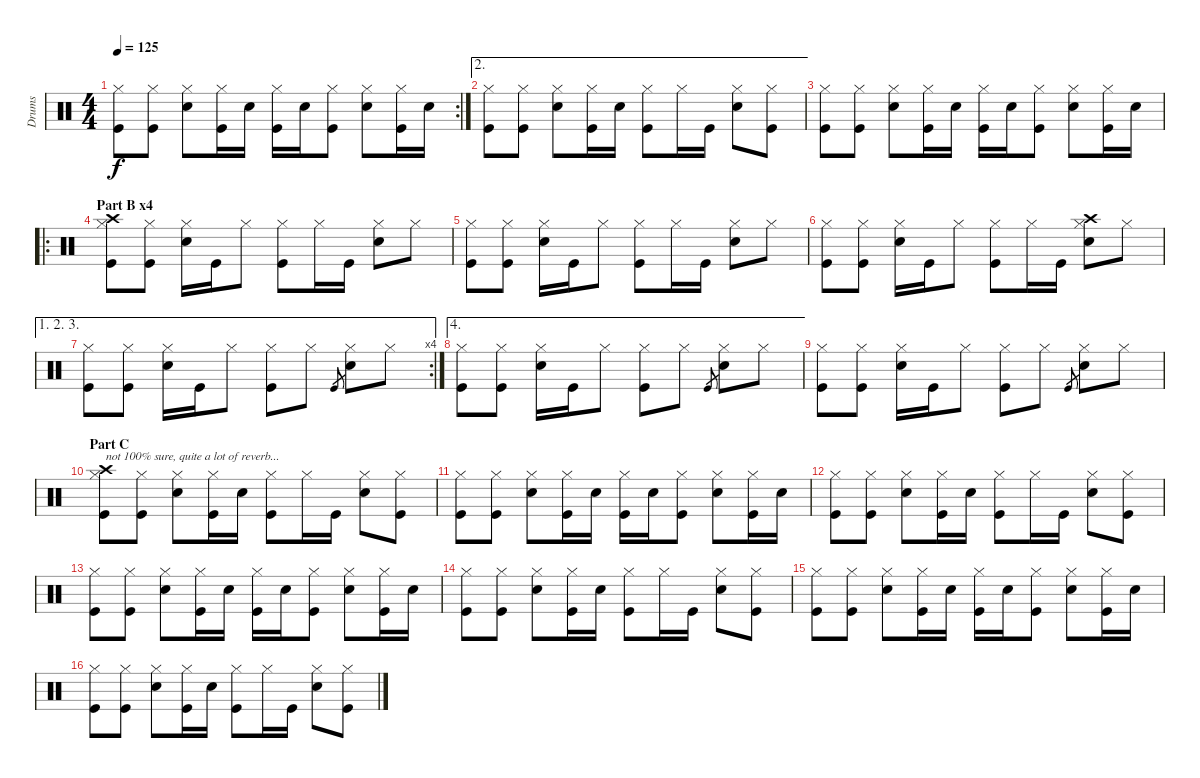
\track ("Drums" "Drums") {instrument percussion}
\staff {score}
\articulation defaults
\rc 2
\ts (4 4)
\tempo 125
\clef neutral
\ks c
("Hi-Hat (closed)" "Kick (hit)").8{dy f} ("Hi-Hat (closed)" "Kick (hit)").8 ("Hi-Hat (closed)" "Electric Snare (hit)").8 ("Hi-Hat (closed)" "Kick (hit)").16 "Electric Snare (hit)".16 ("Hi-Hat (closed)" "Kick (hit)").16 "Electric Snare (hit)".16 ("Hi-Hat (closed)" "Kick (hit)").8 ("Hi-Hat (closed)" "Electric Snare (hit)").8 ("Hi-Hat (closed)" "Kick (hit)").16 "Electric Snare (hit)".16 |
\ae 2
("Hi-Hat (closed)" "Kick (hit)").8 ("Hi-Hat (closed)" "Kick (hit)").8 ("Hi-Hat (closed)" "Electric Snare (hit)").8 ("Hi-Hat (closed)" "Kick (hit)").16 "Electric Snare (hit)".16 ("Hi-Hat (closed)" "Kick (hit)").8 "Hi-Hat (closed)".16 "Kick (hit)".16 ("Hi-Hat (closed)" "Electric Snare (hit)").8 ("Hi-Hat (closed)" "Kick (hit)").8 |
("Hi-Hat (closed)" "Kick (hit)").8 ("Hi-Hat (closed)" "Kick (hit)").8 ("Hi-Hat (closed)" "Electric Snare (hit)").8 ("Hi-Hat (closed)" "Kick (hit)").16 "Electric Snare (hit)".16 ("Hi-Hat (closed)" "Kick (hit)").16 "Electric Snare (hit)".16 ("Hi-Hat (closed)" "Kick (hit)").8 ("Hi-Hat (closed)" "Electric Snare (hit)").8 ("Hi-Hat (closed)" "Kick (hit)").16 "Electric Snare (hit)".16 |
\ro
\section ("" "Part B x4")
("Hi-Hat (closed)" "Crash high (hit)" "Kick (hit)").8 ("Hi-Hat (closed)" "Kick (hit)").8 ("Hi-Hat (closed)" "Electric Snare (hit)").16 "Kick (hit)".16 "Hi-Hat (closed)".8 ("Hi-Hat (closed)" "Kick (hit)").8 "Hi-Hat (closed)".16 "Kick (hit)".16 ("Hi-Hat (closed)" "Electric Snare (hit)").8 "Hi-Hat (closed)".8 |
("Hi-Hat (closed)" "Kick (hit)").8 ("Hi-Hat (closed)" "Kick (hit)").8 ("Hi-Hat (closed)" "Electric Snare (hit)").16 "Kick (hit)".16 "Hi-Hat (closed)".8 ("Hi-Hat (closed)" "Kick (hit)").8 "Hi-Hat (closed)".16 "Kick (hit)".16 ("Hi-Hat (closed)" "Electric Snare (hit)").8 "Hi-Hat (closed)".8 |
("Hi-Hat (closed)" "Kick (hit)").8 ("Hi-Hat (closed)" "Kick (hit)").8 ("Hi-Hat (closed)" "Electric Snare (hit)").16 "Kick (hit)".16 "Hi-Hat (closed)".8 ("Hi-Hat (closed)" "Kick (hit)").8 "Hi-Hat (closed)".16 "Kick (hit)".16 ("Hi-Hat (closed)" "Crash high (hit)" "Electric Snare (hit)").8 "Hi-Hat (closed)".8 |
\ae (1 2 3)
\rc 4
("Hi-Hat (closed)" "Kick (hit)").8 ("Hi-Hat (closed)" "Kick (hit)").8 ("Hi-Hat (closed)" "Electric Snare (hit)").16 "Kick (hit)".16 "Hi-Hat (closed)".8 ("Hi-Hat (closed)" "Kick (hit)").8 "Hi-Hat (closed)".8 "Kick (hit)".8{gr} ("Hi-Hat (closed)" "Electric Snare (hit)").8 "Hi-Hat (closed)".8 |
\ae 4
("Hi-Hat (closed)" "Kick (hit)").8 ("Hi-Hat (closed)" "Kick (hit)").8 ("Hi-Hat (closed)" "Electric Snare (hit)").16 "Kick (hit)".16 "Hi-Hat (closed)".8 ("Hi-Hat (closed)" "Kick (hit)").8 "Hi-Hat (closed)".8 "Kick (hit)".8{gr} ("Hi-Hat (closed)" "Electric Snare (hit)").8 "Hi-Hat (closed)".8 |
("Hi-Hat (closed)" "Kick (hit)").8 ("Hi-Hat (closed)" "Kick (hit)").8 ("Hi-Hat (closed)" "Electric Snare (hit)").16 "Kick (hit)".16 "Hi-Hat (closed)".8 ("Hi-Hat (closed)" "Kick (hit)").8 "Hi-Hat (closed)".8 "Kick (hit)".8{gr} ("Hi-Hat (closed)" "Electric Snare (hit)").8 "Hi-Hat (closed)".8 |
\section ("" "Part C")
("Hi-Hat (closed)" "Crash high (hit)" "Kick (hit)").8{txt "not 100% sure, quite a lot of reverb..."} ("Hi-Hat (closed)" "Kick (hit)").8 ("Hi-Hat (closed)" "Electric Snare (hit)").8 ("Hi-Hat (closed)" "Kick (hit)").16 "Electric Snare (hit)".16 ("Hi-Hat (closed)" "Kick (hit)").8 "Hi-Hat (closed)".16 "Kick (hit)".16 ("Hi-Hat (closed)" "Electric Snare (hit)").8 ("Hi-Hat (closed)" "Kick (hit)").8 |
("Hi-Hat (closed)" "Kick (hit)").8 ("Hi-Hat (closed)" "Kick (hit)").8 ("Hi-Hat (closed)" "Electric Snare (hit)").8 ("Hi-Hat (closed)" "Kick (hit)").16 "Electric Snare (hit)".16 ("Hi-Hat (closed)" "Kick (hit)").16 "Electric Snare (hit)".16 ("Hi-Hat (closed)" "Kick (hit)").8 ("Hi-Hat (closed)" "Electric Snare (hit)").8 ("Hi-Hat (closed)" "Kick (hit)").16 "Electric Snare (hit)".16 |
("Hi-Hat (closed)" "Kick (hit)").8 ("Hi-Hat (closed)" "Kick (hit)").8 ("Hi-Hat (closed)" "Electric Snare (hit)").8 ("Hi-Hat (closed)" "Kick (hit)").16 "Electric Snare (hit)".16 ("Hi-Hat (closed)" "Kick (hit)").8 "Hi-Hat (closed)".16 "Kick (hit)".16 ("Hi-Hat (closed)" "Electric Snare (hit)").8 ("Hi-Hat (closed)" "Kick (hit)").8 |
("Hi-Hat (closed)" "Kick (hit)").8 ("Hi-Hat (closed)" "Kick (hit)").8 ("Hi-Hat (closed)" "Electric Snare (hit)").8 ("Hi-Hat (closed)" "Kick (hit)").16 "Electric Snare (hit)".16 ("Hi-Hat (closed)" "Kick (hit)").16 "Electric Snare (hit)".16 ("Hi-Hat (closed)" "Kick (hit)").8 ("Hi-Hat (closed)" "Electric Snare (hit)").8 ("Hi-Hat (closed)" "Kick (hit)").16 "Electric Snare (hit)".16 |
("Hi-Hat (closed)" "Kick (hit)").8 ("Hi-Hat (closed)" "Kick (hit)").8 ("Hi-Hat (closed)" "Electric Snare (hit)").8 ("Hi-Hat (closed)" "Kick (hit)").16 "Electric Snare (hit)".16 ("Hi-Hat (closed)" "Kick (hit)").8 "Hi-Hat (closed)".16 "Kick (hit)".16 ("Hi-Hat (closed)" "Electric Snare (hit)").8 ("Hi-Hat (closed)" "Kick (hit)").8 |
("Hi-Hat (closed)" "Kick (hit)").8 ("Hi-Hat (closed)" "Kick (hit)").8 ("Hi-Hat (closed)" "Electric Snare (hit)").8 ("Hi-Hat (closed)" "Kick (hit)").16 "Electric Snare (hit)".16 ("Hi-Hat (closed)" "Kick (hit)").16 "Electric Snare (hit)".16 ("Hi-Hat (closed)" "Kick (hit)").8 ("Hi-Hat (closed)" "Electric Snare (hit)").8 ("Hi-Hat (closed)" "Kick (hit)").16 "Electric Snare (hit)".16 |
("Hi-Hat (closed)" "Kick (hit)").8 ("Hi-Hat (closed)" "Kick (hit)").8 ("Hi-Hat (closed)" "Electric Snare (hit)").8 ("Hi-Hat (closed)" "Kick (hit)").16 "Electric Snare (hit)".16 ("Hi-Hat (closed)" "Kick (hit)").8 "Hi-Hat (closed)".16 "Kick (hit)".16 ("Hi-Hat (closed)" "Electric Snare (hit)").8 ("Hi-Hat (closed)" "Kick (hit)").8
